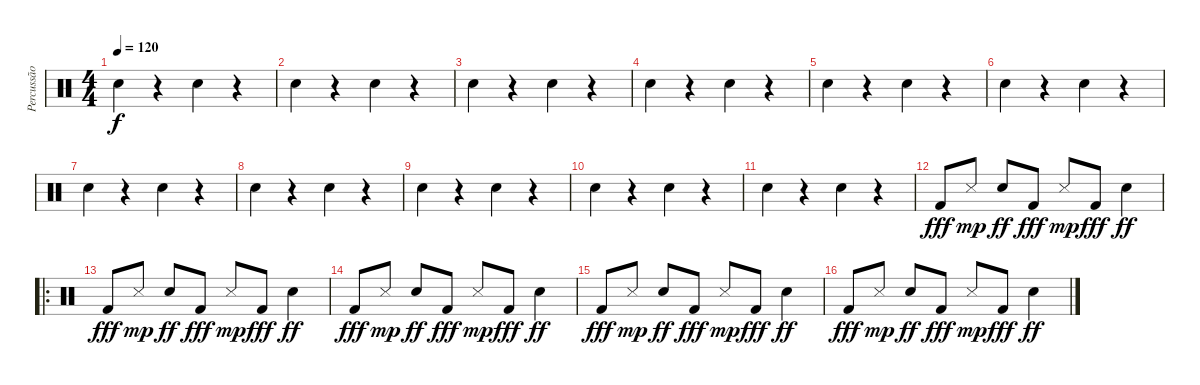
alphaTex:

\track ("Percussão" "Percussão") {instrument percussion}
\staff {score}
\articulation defaults
\ts (4 4)
\tempo 120
\clef neutral
\ks c "Hand Clap (hit)".4{dy f}
r.4 "Hand Clap (hit)".4 r.4 |
"Hand Clap (hit)".4 r.4 "Hand Clap (hit)".4 r.4 |
"Hand Clap (hit)".4 r.4 "Hand Clap (hit)".4 r.4 |
"Hand Clap (hit)".4 r.4 "Hand Clap (hit)".4 r.4 |
"Hand Clap (hit)".4 r.4 "Hand Clap (hit)".4 r.4 |
"Hand Clap (hit)".4 r.4 "Hand Clap (hit)".4 r.4 |
"Hand Clap (hit)".4 r.4 "Hand Clap (hit)".4 r.4 |
"Hand Clap (hit)".4 r.4 "Hand Clap (hit)".4 r.4 |
"Hand Clap (hit)".4 r.4 "Hand Clap (hit)".4 r.4 |
"Hand Clap (hit)".4 r.4 "Hand Clap (hit)".4 r.4 |
"Hand Clap (hit)".4 r.4 "Hand Clap (hit)".4 r.4 |
"Kick (hit) 2".8{dy fff} "Metronome (hit)".8{dy mp} "Hand Clap (hit)".8{dy ff} "Kick (hit) 2".8{dy fff} "Metronome (hit)".8{dy mp} "Kick (hit) 2".8{dy fff} "Hand Clap (hit)".4{dy ff} |
\ro "Kick (hit) 2".8{dy fff} "Metronome (hit)".8{dy mp} "Hand Clap (hit)".8{dy ff} "Kick (hit) 2".8{dy fff} "Metronome (hit)".8{dy mp} "Kick (hit) 2".8{dy fff} "Hand Clap (hit)".4{dy ff}
|
"Kick (hit) 2".8{dy fff} "Metronome (hit)".8{dy mp} "Hand Clap (hit)".8{dy ff} "Kick (hit) 2".8{dy fff} "Metronome (hit)".8{dy mp} "Kick (hit) 2".8{dy fff} "Hand Clap (hit)".4{dy ff} |
"Kick (hit) 2".8{dy fff} "Metronome (hit)".8{dy mp} "Hand Clap (hit)".8{dy ff} "Kick (hit) 2".8{dy fff} "Metronome (hit)".8{dy mp} "Kick (hit) 2".8{dy fff} "Hand Clap (hit)".4{dy ff} |
"Kick (hit) 2".8{dy fff} "Metronome (hit)".8{dy mp} "Hand Clap (hit)".8{dy ff} "Kick (hit) 2".8{dy fff} "Metronome (hit)".8{dy mp} "Kick (hit) 2".8{dy fff} "Hand Clap (hit)".4{dy ff}
